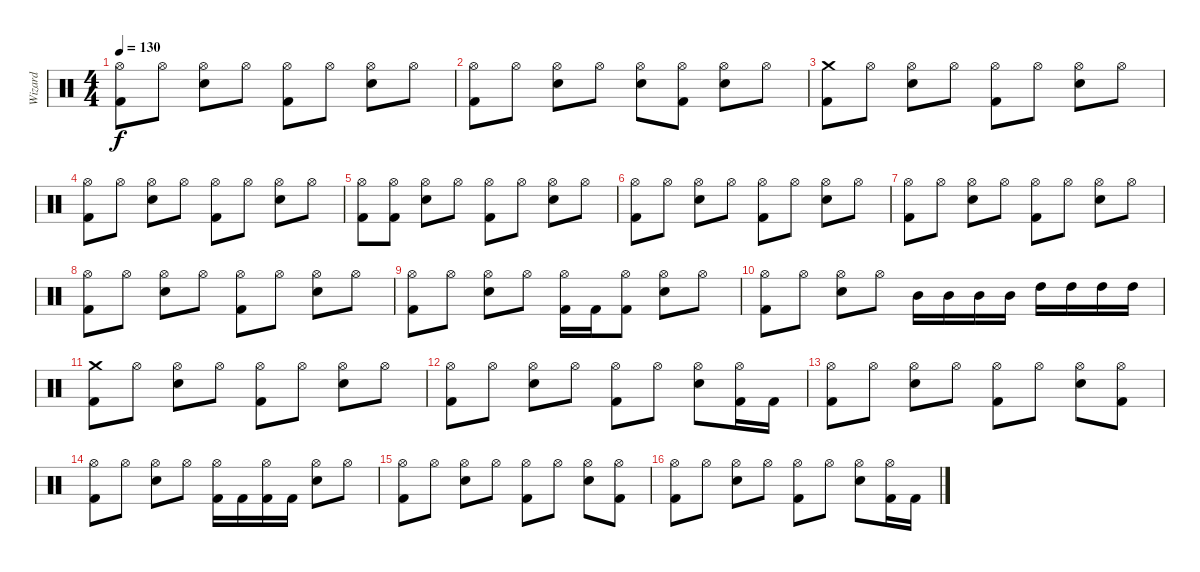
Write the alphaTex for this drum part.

\track ("Wizard" "Wizard") {instrument percussion}
\staff {score}
\articulation defaults
\ts (4 4)
\tempo 130
\clef neutral
\ks c
("Hi-Hat (open)" "Kick (hit) 2").8{dy f} "Hi-Hat (open)".8 ("Hi-Hat (open)" "Snare (hit) 2").8 "Hi-Hat (open)".8 ("Hi-Hat (open)" "Kick (hit) 2").8 "Hi-Hat (open)".8 ("Hi-Hat (open)" "Snare (hit) 2").8 "Hi-Hat (open)".8 |
("Hi-Hat (open)" "Kick (hit) 2").8 "Hi-Hat (open)".8 ("Hi-Hat (open)" "Snare (hit) 2").8 "Hi-Hat (open)".8 ("Hi-Hat (open)" "Snare (hit) 2").8 ("Hi-Hat (open)" "Kick (hit) 2").8 ("Hi-Hat (open)" "Snare (hit) 2").8 "Hi-Hat (open)".8 |
("Crash medium (hit)" "Kick (hit) 2").8 "Hi-Hat (open)".8 ("Hi-Hat (open)" "Snare (hit) 2").8 "Hi-Hat (open)".8 ("Hi-Hat (open)" "Kick (hit) 2").8 "Hi-Hat (open)".8 ("Hi-Hat (open)" "Snare (hit) 2").8 "Hi-Hat (open)".8 |
("Hi-Hat (open)" "Kick (hit) 2").8 "Hi-Hat (open)".8 ("Hi-Hat (open)" "Snare (hit) 2").8 "Hi-Hat (open)".8 ("Hi-Hat (open)" "Kick (hit) 2").8 "Hi-Hat (open)".8 ("Hi-Hat (open)" "Snare (hit) 2").8 "Hi-Hat (open)".8 |
("Hi-Hat (open)" "Kick (hit) 2").8 ("Hi-Hat (open)" "Kick (hit) 2").8 ("Hi-Hat (open)" "Snare (hit) 2").8 "Hi-Hat (open)".8 ("Hi-Hat (open)" "Kick (hit) 2").8 "Hi-Hat (open)".8 ("Hi-Hat (open)" "Snare (hit) 2").8 "Hi-Hat (open)".8 |
("Hi-Hat (open)" "Kick (hit) 2").8 "Hi-Hat (open)".8 ("Hi-Hat (open)" "Snare (hit) 2").8 "Hi-Hat (open)".8 ("Hi-Hat (open)" "Kick (hit) 2").8 "Hi-Hat (open)".8 ("Hi-Hat (open)" "Snare (hit) 2").8 "Hi-Hat (open)".8 |
("Hi-Hat (open)" "Kick (hit) 2").8 "Hi-Hat (open)".8 ("Hi-Hat (open)" "Snare (hit) 2").8 "Hi-Hat (open)".8 ("Hi-Hat (open)" "Kick (hit) 2").8 "Hi-Hat (open)".8 ("Hi-Hat (open)" "Snare (hit) 2").8 "Hi-Hat (open)".8 |
("Hi-Hat (open)" "Kick (hit) 2").8 "Hi-Hat (open)".8 ("Hi-Hat (open)" "Snare (hit) 2").8 "Hi-Hat (open)".8 ("Hi-Hat (open)" "Kick (hit) 2").8 "Hi-Hat (open)".8 ("Hi-Hat (open)" "Snare (hit) 2").8 "Hi-Hat (open)".8 |
("Hi-Hat (open)" "Kick (hit) 2").8 "Hi-Hat (open)".8 ("Hi-Hat (open)" "Snare (hit) 2").8 "Hi-Hat (open)".8 ("Hi-Hat (open)" "Kick (hit) 2").16 "Kick (hit) 2".16 ("Hi-Hat (open)" "Kick (hit) 2").8 ("Hi-Hat (open)" "Snare (hit) 2").8 "Hi-Hat (open)".8 |
("Hi-Hat (open)" "Kick (hit) 2").8 "Hi-Hat (open)".8 ("Hi-Hat (open)" "Snare (hit) 2").8 "Hi-Hat (open)".8 "Mid Tom (hit)".16 "Mid Tom (hit)".16 "Mid Tom (hit)".16 "Mid Tom (hit)".16 "High Tom (hit)".16 "High Tom (hit)".16 "High Tom (hit)".16 "High Tom (hit)".16 |
("Crash medium (hit)" "Kick (hit) 2").8 "Hi-Hat (open)".8 ("Hi-Hat (open)" "Snare (hit) 2").8 "Hi-Hat (open)".8 ("Hi-Hat (open)" "Kick (hit) 2").8 "Hi-Hat (open)".8 ("Hi-Hat (open)" "Snare (hit) 2").8 "Hi-Hat (open)".8 |
("Hi-Hat (open)" "Kick (hit) 2").8 "Hi-Hat (open)".8 ("Hi-Hat (open)" "Snare (hit) 2").8 "Hi-Hat (open)".8 ("Hi-Hat (open)" "Kick (hit) 2").8 "Hi-Hat (open)".8 ("Hi-Hat (open)" "Snare (hit) 2").8 ("Hi-Hat (open)" "Kick (hit) 2").16 "Kick (hit) 2".16 |
("Hi-Hat (open)" "Kick (hit) 2").8 "Hi-Hat (open)".8 ("Hi-Hat (open)" "Snare (hit) 2").8 "Hi-Hat (open)".8 ("Hi-Hat (open)" "Kick (hit) 2").8 "Hi-Hat (open)".8 ("Hi-Hat (open)" "Snare (hit) 2").8 ("Hi-Hat (open)" "Kick (hit) 2").8 |
("Hi-Hat (open)" "Kick (hit) 2").8 "Hi-Hat (open)".8 ("Hi-Hat (open)" "Snare (hit) 2").8 "Hi-Hat (open)".8 ("Hi-Hat (open)" "Kick (hit) 2").16 "Kick (hit) 2".16 ("Hi-Hat (open)" "Kick (hit) 2").16 "Kick (hit) 2".16 ("Hi-Hat (open)" "Snare (hit) 2").8 "Hi-Hat (open)".8 |
("Hi-Hat (open)" "Kick (hit) 2").8 "Hi-Hat (open)".8 ("Hi-Hat (open)" "Snare (hit) 2").8 "Hi-Hat (open)".8 ("Hi-Hat (open)" "Kick (hit) 2").8 "Hi-Hat (open)".8 ("Hi-Hat (open)" "Snare (hit) 2").8 ("Hi-Hat (open)" "Kick (hit) 2").8 |
("Hi-Hat (open)" "Kick (hit) 2").8 "Hi-Hat (open)".8 ("Hi-Hat (open)" "Snare (hit) 2").8 "Hi-Hat (open)".8 ("Hi-Hat (open)" "Kick (hit) 2").8 "Hi-Hat (open)".8 ("Hi-Hat (open)" "Snare (hit) 2").8 ("Hi-Hat (open)" "Kick (hit) 2").16 "Kick (hit) 2".16
